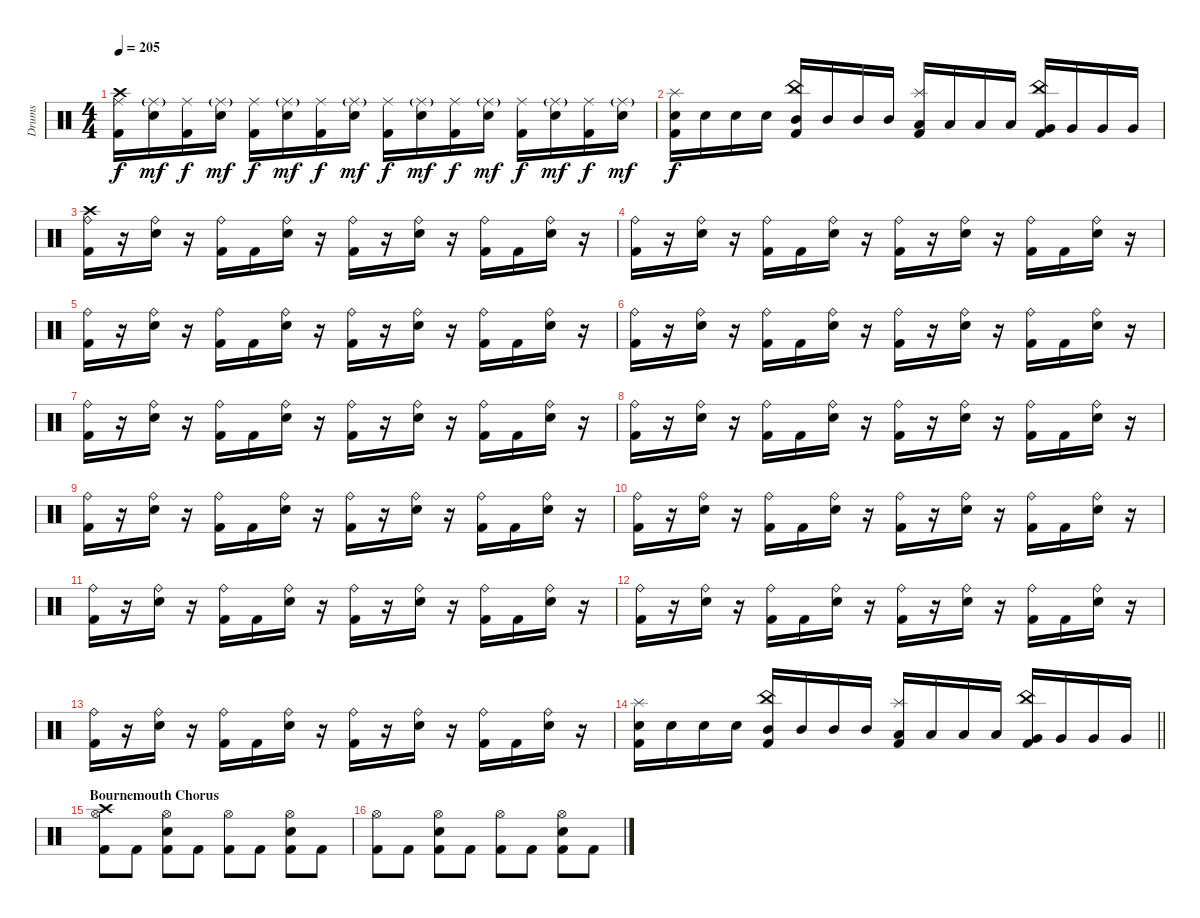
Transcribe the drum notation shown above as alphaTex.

\track ("Drums" "Drums") {instrument percussion}
\staff {score}
\articulation defaults
\ts (4 4)
\tempo 205
\clef neutral
\ks c
("Crash high (hit)" "Ride (middle)" "Kick (hit) 2").16{dy f} ("Ride (middle)"{g} "Snare (hit) 2").16{dy mf} ("Ride (middle)" "Kick (hit) 2").16{dy f} ("Ride (middle)"{g} "Snare (hit) 2").16{dy mf} ("Ride (middle)" "Kick (hit) 2").16{dy f} ("Ride (middle)"{g} "Snare (hit) 2").16{dy mf} ("Ride (middle)" "Kick (hit) 2").16{dy f} ("Ride (middle)"{g} "Snare (hit) 2").16{dy mf} ("Ride (middle)" "Kick (hit) 2").16{dy f} ("Ride (middle)"{g} "Snare (hit) 2").16{dy mf} ("Ride (middle)" "Kick (hit) 2").16{dy f} ("Ride (middle)"{g} "Snare (hit) 2").16{dy mf} ("Ride (middle)" "Kick (hit) 2").16{dy f} ("Ride (middle)"{g} "Snare (hit) 2").16{dy mf} ("Ride (middle)" "Kick (hit) 2").16{dy f} ("Ride (middle)"{g} "Snare (hit) 2").16{dy mf} |
("Splash (hit)" "Snare (hit) 2" "Kick (hit) 2").16{dy f} "Snare (hit) 2".16 "Snare (hit) 2".16 "Snare (hit) 2".16 ("China (hit)" "Mid Tom (hit)" "Kick (hit) 2").16 "Mid Tom (hit)".16 "Mid Tom (hit)".16 "Mid Tom (hit)".16 ("Splash (hit)" "Low Tom (hit)" "Kick (hit) 2").16 "Low Tom (hit)".16 "Low Tom (hit)".16 "Low Tom (hit)".16 ("China (hit)" "Very Low Tom (hit)" "Kick (hit) 2").16 "Very Low Tom (hit)".16 "Very Low Tom (hit)".16 "Very Low Tom (hit)".16 |
("Crash high (hit)" "Ride (bell)" "Kick (hit) 2").16 r.16 ("Ride (bell)" "Snare (hit) 2").16 r.16 ("Ride (bell)" "Kick (hit) 2").16 "Kick (hit) 2".16 ("Ride (bell)" "Snare (hit) 2").16 r.16 ("Ride (bell)" "Kick (hit) 2").16 r.16 ("Ride (bell)" "Snare (hit) 2").16 r.16 ("Ride (bell)" "Kick (hit) 2").16 "Kick (hit) 2".16 ("Ride (bell)" "Snare (hit) 2").16 r.16 |
("Ride (bell)" "Kick (hit) 2").16 r.16 ("Ride (bell)" "Snare (hit) 2").16 r.16 ("Ride (bell)" "Kick (hit) 2").16 "Kick (hit) 2".16 ("Ride (bell)" "Snare (hit) 2").16 r.16 ("Ride (bell)" "Kick (hit) 2").16 r.16 ("Ride (bell)" "Snare (hit) 2").16 r.16 ("Ride (bell)" "Kick (hit) 2").16 "Kick (hit) 2".16 ("Ride (bell)" "Snare (hit) 2").16 r.16 |
("Ride (bell)" "Kick (hit) 2").16 r.16 ("Ride (bell)" "Snare (hit) 2").16 r.16 ("Ride (bell)" "Kick (hit) 2").16 "Kick (hit) 2".16 ("Ride (bell)" "Snare (hit) 2").16 r.16 ("Ride (bell)" "Kick (hit) 2").16 r.16 ("Ride (bell)" "Snare (hit) 2").16 r.16 ("Ride (bell)" "Kick (hit) 2").16 "Kick (hit) 2".16 ("Ride (bell)" "Snare (hit) 2").16 r.16 |
("Ride (bell)" "Kick (hit) 2").16 r.16 ("Ride (bell)" "Snare (hit) 2").16 r.16 ("Ride (bell)" "Kick (hit) 2").16 "Kick (hit) 2".16 ("Ride (bell)" "Snare (hit) 2").16 r.16 ("Ride (bell)" "Kick (hit) 2").16 r.16 ("Ride (bell)" "Snare (hit) 2").16 r.16 ("Ride (bell)" "Kick (hit) 2").16 "Kick (hit) 2".16 ("Ride (bell)" "Snare (hit) 2").16 r.16 |
("Ride (bell)" "Kick (hit) 2").16 r.16 ("Ride (bell)" "Snare (hit) 2").16 r.16 ("Ride (bell)" "Kick (hit) 2").16 "Kick (hit) 2".16 ("Ride (bell)" "Snare (hit) 2").16 r.16 ("Ride (bell)" "Kick (hit) 2").16 r.16 ("Ride (bell)" "Snare (hit) 2").16 r.16 ("Ride (bell)" "Kick (hit) 2").16 "Kick (hit) 2".16 ("Ride (bell)" "Snare (hit) 2").16 r.16 |
("Ride (bell)" "Kick (hit) 2").16 r.16 ("Ride (bell)" "Snare (hit) 2").16 r.16 ("Ride (bell)" "Kick (hit) 2").16 "Kick (hit) 2".16 ("Ride (bell)" "Snare (hit) 2").16 r.16 ("Ride (bell)" "Kick (hit) 2").16 r.16 ("Ride (bell)" "Snare (hit) 2").16 r.16 ("Ride (bell)" "Kick (hit) 2").16 "Kick (hit) 2".16 ("Ride (bell)" "Snare (hit) 2").16 r.16 |
("Ride (bell)" "Kick (hit) 2").16 r.16 ("Ride (bell)" "Snare (hit) 2").16 r.16 ("Ride (bell)" "Kick (hit) 2").16 "Kick (hit) 2".16 ("Ride (bell)" "Snare (hit) 2").16 r.16 ("Ride (bell)" "Kick (hit) 2").16 r.16 ("Ride (bell)" "Snare (hit) 2").16 r.16 ("Ride (bell)" "Kick (hit) 2").16 "Kick (hit) 2".16 ("Ride (bell)" "Snare (hit) 2").16 r.16 |
("Ride (bell)" "Kick (hit) 2").16 r.16 ("Ride (bell)" "Snare (hit) 2").16 r.16 ("Ride (bell)" "Kick (hit) 2").16 "Kick (hit) 2".16 ("Ride (bell)" "Snare (hit) 2").16 r.16 ("Ride (bell)" "Kick (hit) 2").16 r.16 ("Ride (bell)" "Snare (hit) 2").16 r.16 ("Ride (bell)" "Kick (hit) 2").16 "Kick (hit) 2".16 ("Ride (bell)" "Snare (hit) 2").16 r.16 |
("Ride (bell)" "Kick (hit) 2").16 r.16 ("Ride (bell)" "Snare (hit) 2").16 r.16 ("Ride (bell)" "Kick (hit) 2").16 "Kick (hit) 2".16 ("Ride (bell)" "Snare (hit) 2").16 r.16 ("Ride (bell)" "Kick (hit) 2").16 r.16 ("Ride (bell)" "Snare (hit) 2").16 r.16 ("Ride (bell)" "Kick (hit) 2").16 "Kick (hit) 2".16 ("Ride (bell)" "Snare (hit) 2").16 r.16 |
("Ride (bell)" "Kick (hit) 2").16 r.16 ("Ride (bell)" "Snare (hit) 2").16 r.16 ("Ride (bell)" "Kick (hit) 2").16 "Kick (hit) 2".16 ("Ride (bell)" "Snare (hit) 2").16 r.16 ("Ride (bell)" "Kick (hit) 2").16 r.16 ("Ride (bell)" "Snare (hit) 2").16 r.16 ("Ride (bell)" "Kick (hit) 2").16 "Kick (hit) 2".16 ("Ride (bell)" "Snare (hit) 2").16 r.16 |
("Ride (bell)" "Kick (hit) 2").16 r.16 ("Ride (bell)" "Snare (hit) 2").16 r.16 ("Ride (bell)" "Kick (hit) 2").16 "Kick (hit) 2".16 ("Ride (bell)" "Snare (hit) 2").16 r.16 ("Ride (bell)" "Kick (hit) 2").16 r.16 ("Ride (bell)" "Snare (hit) 2").16 r.16 ("Ride (bell)" "Kick (hit) 2").16 "Kick (hit) 2".16 ("Ride (bell)" "Snare (hit) 2").16 r.16 |
\barLineRight lightlight
("Splash (hit)" "Snare (hit) 2" "Kick (hit) 2").16 "Snare (hit) 2".16 "Snare (hit) 2".16 "Snare (hit) 2".16 ("China (hit)" "Mid Tom (hit)" "Kick (hit) 2").16 "Mid Tom (hit)".16 "Mid Tom (hit)".16 "Mid Tom (hit)".16 ("Splash (hit)" "Low Tom (hit)" "Kick (hit) 2").16 "Low Tom (hit)".16 "Low Tom (hit)".16 "Low Tom (hit)".16 ("China (hit)" "Very Low Tom (hit)" "Kick (hit) 2").16 "Very Low Tom (hit)".16 "Very Low Tom (hit)".16 "Very Low Tom (hit)".16 |
\section ("" "Bournemouth Chorus")
("Crash high (hit)" "Hi-Hat (open)" "Kick (hit) 2").8 "Kick (hit) 2".8 ("Hi-Hat (open)" "Snare (hit) 2" "Kick (hit) 2").8 "Kick (hit) 2".8 ("Hi-Hat (open)" "Kick (hit) 2").8 "Kick (hit) 2".8 ("Hi-Hat (open)" "Snare (hit) 2" "Kick (hit) 2").8 "Kick (hit) 2".8 |
("Hi-Hat (open)" "Kick (hit) 2").8 "Kick (hit) 2".8 ("Hi-Hat (open)" "Snare (hit) 2" "Kick (hit) 2").8 "Kick (hit) 2".8 ("Hi-Hat (open)" "Kick (hit) 2").8 "Kick (hit) 2".8 ("Hi-Hat (open)" "Snare (hit) 2" "Kick (hit) 2").8 "Kick (hit) 2".8
